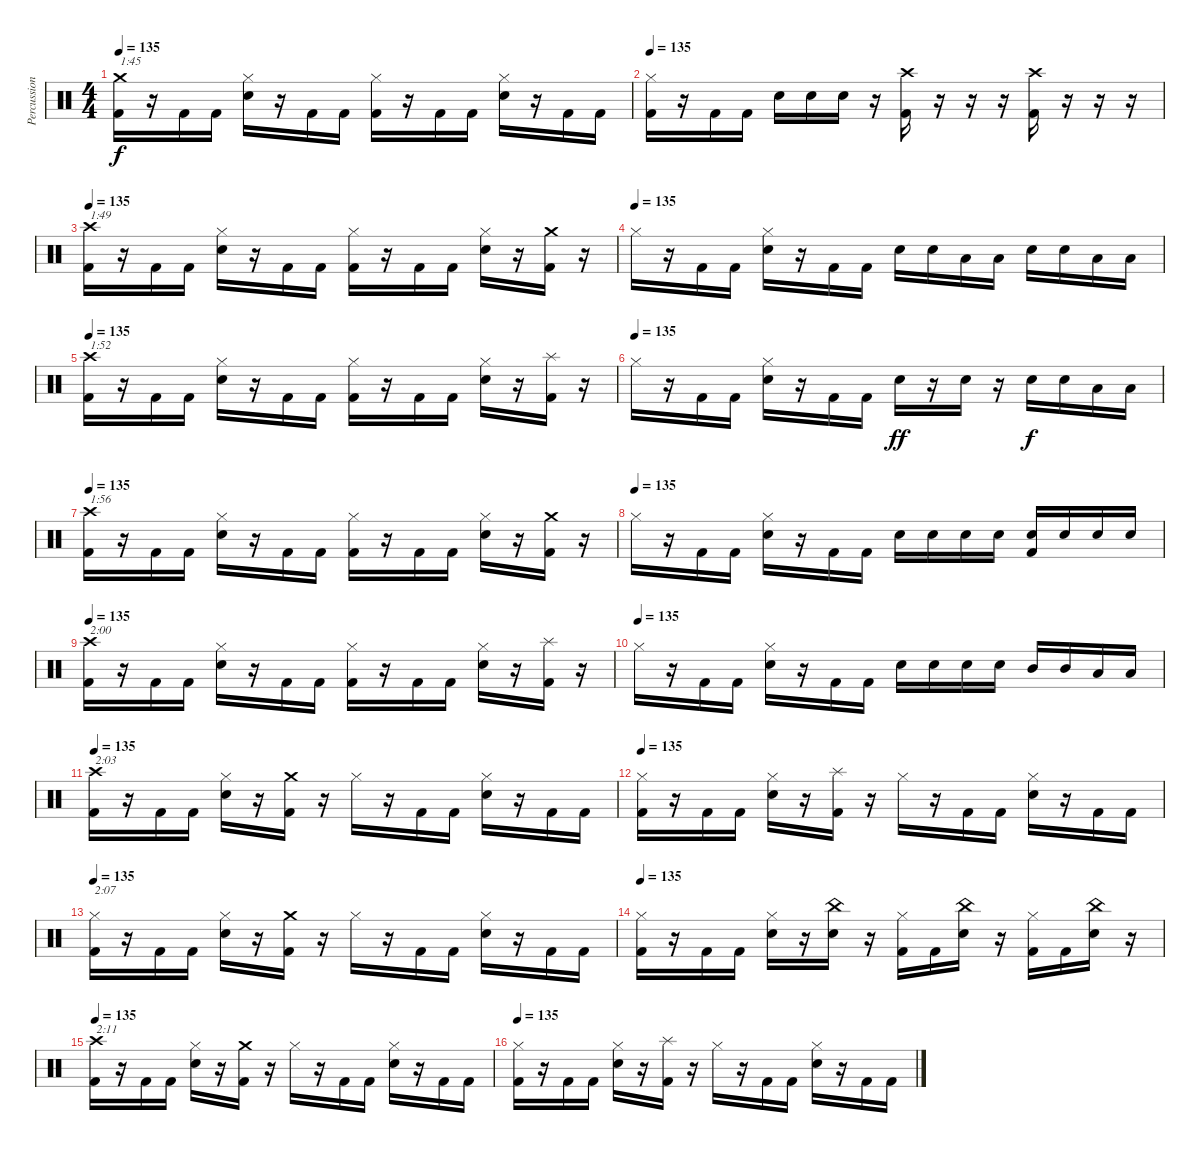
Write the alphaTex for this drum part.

\track ("Percussion" "Percussion") {instrument percussion}
\staff {score}
\articulation defaults
\ts (4 4)
\tempo 135
\clef neutral
\ks c
("Crash medium (hit)" "Kick (hit) 2").16{txt "1:45" dy f} r.16 "Kick (hit) 2".16 "Kick (hit) 2".16 ("Hi-Hat (closed)" "Snare (hit) 2").16 r.16 "Kick (hit) 2".16 "Kick (hit) 2".16 ("Hi-Hat (closed)" "Kick (hit) 2").16 r.16 "Kick (hit) 2".16 "Kick (hit) 2".16 ("Hi-Hat (closed)" "Snare (hit) 2").16 r.16 "Kick (hit) 2".16 "Kick (hit) 2".16 |
\tempo 135
("Hi-Hat (closed)" "Kick (hit) 2").16 r.16 "Kick (hit) 2".16 "Kick (hit) 2".16 "Snare (hit) 2".16 "Snare (hit) 2".16 "Snare (hit) 2".16 r.16 ("Crash high (hit)" "Kick (hit) 2").16 r.16 r.16 r.16 ("Crash high (hit)" "Kick (hit) 2").16 r.16 r.16 r.16 |
\tempo 135
("Crash high (hit)" "Kick (hit) 2").16{txt "1:49"} r.16 "Kick (hit) 2".16 "Kick (hit) 2".16 ("Hi-Hat (closed)" "Snare (hit) 2").16 r.16 "Kick (hit) 2".16 "Kick (hit) 2".16 ("Hi-Hat (closed)" "Kick (hit) 2").16 r.16 "Kick (hit) 2".16 "Kick (hit) 2".16 ("Hi-Hat (closed)" "Snare (hit) 2").16 r.16 ("Crash medium (hit)" "Kick (hit) 2").16 r.16 |
\tempo (135)
"Hi-Hat (closed)".16 r.16 "Kick (hit) 2".16 "Kick (hit) 2".16 ("Hi-Hat (closed)" "Snare (hit) 2").16 r.16 "Kick (hit) 2".16 "Kick (hit) 2".16 "Snare (hit) 2".16 "Snare (hit) 2".16 "Low Tom (hit)".16 "Low Tom (hit)".16 "Snare (hit) 2".16 "Snare (hit) 2".16 "Low Tom (hit)".16 "Low Tom (hit)".16 |
\tempo 135
("Crash high (hit)" "Kick (hit) 2").16{txt "1:52"} r.16 "Kick (hit) 2".16 "Kick (hit) 2".16 ("Hi-Hat (closed)" "Snare (hit) 2").16 r.16 "Kick (hit) 2".16 "Kick (hit) 2".16 ("Hi-Hat (closed)" "Kick (hit) 2").16 r.16 "Kick (hit) 2".16 "Kick (hit) 2".16 ("Hi-Hat (closed)" "Snare (hit) 2").16 r.16 ("Splash (hit)" "Kick (hit) 2").16 r.16 |
\tempo (135)
"Hi-Hat (closed)".16 r.16 "Kick (hit) 2".16 "Kick (hit) 2".16 ("Hi-Hat (closed)" "Snare (hit) 2").16 r.16 "Kick (hit) 2".16 "Kick (hit) 2".16 "Snare (hit) 2".16{dy ff} r.16 "Snare (hit) 2".16 r.16 "Snare (hit) 2".16{dy f} "Snare (hit) 2".16 "Low Tom (hit)".16 "Low Tom (hit)".16 |
\tempo 135
("Crash high (hit)" "Kick (hit) 2").16{txt "1:56"} r.16 "Kick (hit) 2".16 "Kick (hit) 2".16 ("Hi-Hat (closed)" "Snare (hit) 2").16 r.16 "Kick (hit) 2".16 "Kick (hit) 2".16 ("Hi-Hat (closed)" "Kick (hit) 2").16 r.16 "Kick (hit) 2".16 "Kick (hit) 2".16 ("Hi-Hat (closed)" "Snare (hit) 2").16 r.16 ("Crash medium (hit)" "Kick (hit) 2").16 r.16 |
\tempo (135)
"Hi-Hat (closed)".16 r.16 "Kick (hit) 2".16 "Kick (hit) 2".16 ("Hi-Hat (closed)" "Snare (hit) 2").16 r.16 "Kick (hit) 2".16 "Kick (hit) 2".16 "Snare (hit) 2".16 "Snare (hit) 2".16 "Snare (hit) 2".16 "Snare (hit) 2".16 ("Snare (hit) 2" "Kick (hit) 2").16 "Snare (hit) 2".16 "Snare (hit) 2".16 "Snare (hit) 2".16 |
\tempo 135
("Crash high (hit)" "Kick (hit) 2").16{txt "2:00"} r.16 "Kick (hit) 2".16 "Kick (hit) 2".16 ("Hi-Hat (closed)" "Snare (hit) 2").16 r.16 "Kick (hit) 2".16 "Kick (hit) 2".16 ("Hi-Hat (closed)" "Kick (hit) 2").16 r.16 "Kick (hit) 2".16 "Kick (hit) 2".16 ("Hi-Hat (closed)" "Snare (hit) 2").16 r.16 ("Splash (hit)" "Kick (hit) 2").16 r.16 |
\tempo (135)
"Hi-Hat (closed)".16 r.16 "Kick (hit) 2".16 "Kick (hit) 2".16 ("Hi-Hat (closed)" "Snare (hit) 2").16 r.16 "Kick (hit) 2".16 "Kick (hit) 2".16 "Snare (hit) 2".16 "Snare (hit) 2".16 "Snare (hit) 2".16 "Snare (hit) 2".16 "Mid Tom (hit)".16 "Mid Tom (hit)".16 "Low Tom (hit)".16 "Low Tom (hit)".16 |
\tempo 135
("Crash high (hit)" "Kick (hit) 2").16{txt "2:03"} r.16 "Kick (hit) 2".16 "Kick (hit) 2".16 ("Hi-Hat (closed)" "Snare (hit) 2").16 r.16 ("Crash medium (hit)" "Kick (hit) 2").16 r.16 "Hi-Hat (closed)".16 r.16 "Kick (hit) 2".16 "Kick (hit) 2".16 ("Hi-Hat (closed)" "Snare (hit) 2").16 r.16 "Kick (hit) 2".16 "Kick (hit) 2".16 |
\tempo 135
("Hi-Hat (closed)" "Kick (hit) 2").16 r.16 "Kick (hit) 2".16 "Kick (hit) 2".16 ("Hi-Hat (closed)" "Snare (hit) 2").16 r.16 ("Splash (hit)" "Kick (hit) 2").16 r.16 "Hi-Hat (closed)".16 r.16 "Kick (hit) 2".16 "Kick (hit) 2".16 ("Hi-Hat (closed)" "Snare (hit) 2").16 r.16 "Kick (hit) 2".16 "Kick (hit) 2".16 |
\tempo 135
("Hi-Hat (closed)" "Kick (hit) 2").16{txt "2:07"} r.16 "Kick (hit) 2".16 "Kick (hit) 2".16 ("Hi-Hat (closed)" "Snare (hit) 2").16 r.16 ("Crash medium (hit)" "Kick (hit) 2").16 r.16 "Hi-Hat (closed)".16 r.16 "Kick (hit) 2".16 "Kick (hit) 2".16 ("Hi-Hat (closed)" "Snare (hit) 2").16 r.16 "Kick (hit) 2".16 "Kick (hit) 2".16 |
\tempo 135
("Hi-Hat (closed)" "Kick (hit) 2").16 r.16 "Kick (hit) 2".16 "Kick (hit) 2".16 ("Hi-Hat (closed)" "Snare (hit) 2").16 r.16 ("China (hit)" "Snare (hit) 2").16 r.16 ("Hi-Hat (closed)" "Kick (hit) 2").16 "Kick (hit) 2".16 ("China (hit)" "Snare (hit) 2").16 r.16 ("Hi-Hat (closed)" "Kick (hit) 2").16 "Kick (hit) 2".16 ("China (hit)" "Snare (hit) 2").16 r.16 |
\tempo 135
("Crash high (hit)" "Kick (hit) 2").16{txt "2:11"} r.16 "Kick (hit) 2".16 "Kick (hit) 2".16 ("Hi-Hat (closed)" "Snare (hit) 2").16 r.16 ("Crash medium (hit)" "Kick (hit) 2").16 r.16 "Hi-Hat (closed)".16 r.16 "Kick (hit) 2".16 "Kick (hit) 2".16 ("Hi-Hat (closed)" "Snare (hit) 2").16 r.16 "Kick (hit) 2".16 "Kick (hit) 2".16 |
\tempo 135
("Hi-Hat (closed)" "Kick (hit) 2").16 r.16 "Kick (hit) 2".16 "Kick (hit) 2".16 ("Hi-Hat (closed)" "Snare (hit) 2").16 r.16 ("Splash (hit)" "Kick (hit) 2").16 r.16 "Hi-Hat (closed)".16 r.16 "Kick (hit) 2".16 "Kick (hit) 2".16 ("Hi-Hat (closed)" "Snare (hit) 2").16 r.16 "Kick (hit) 2".16 "Kick (hit) 2".16
